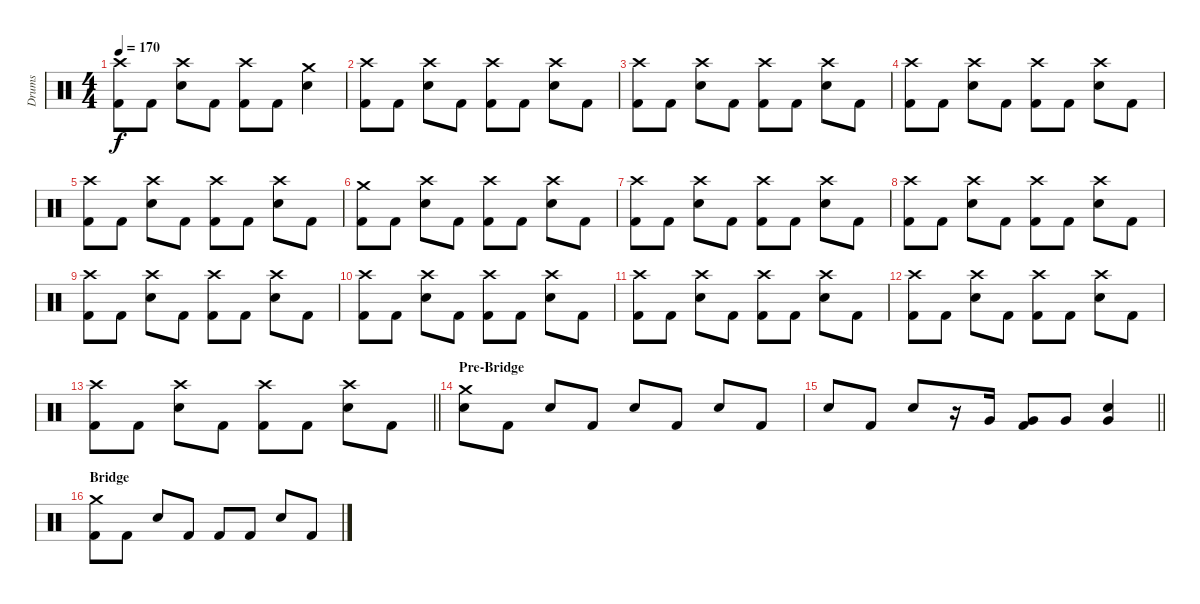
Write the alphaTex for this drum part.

\track ("Drums" "Drums") {instrument percussion}
\staff {score}
\articulation defaults
\ts (4 4)
\tempo 170
\clef neutral
\ks c
("Crash high (hit)" "Kick (hit) 2").8{dy f} "Kick (hit) 2".8 ("Crash high (hit)" "Snare (hit) 2").8 "Kick (hit) 2".8 ("Crash high (hit)" "Kick (hit) 2").8 "Kick (hit) 2".8 ("Crash medium (hit)" "Snare (hit) 2").4 |
("Crash high (hit)" "Kick (hit) 2").8 "Kick (hit) 2".8 ("Crash high (hit)" "Snare (hit) 2").8 "Kick (hit) 2".8 ("Crash high (hit)" "Kick (hit) 2").8 "Kick (hit) 2".8 ("Crash high (hit)" "Snare (hit) 2").8 "Kick (hit) 2".8 |
("Crash high (hit)" "Kick (hit) 2").8 "Kick (hit) 2".8 ("Crash high (hit)" "Snare (hit) 2").8 "Kick (hit) 2".8 ("Crash high (hit)" "Kick (hit) 2").8 "Kick (hit) 2".8 ("Crash high (hit)" "Snare (hit) 2").8 "Kick (hit) 2".8 |
("Crash high (hit)" "Kick (hit) 2").8 "Kick (hit) 2".8 ("Crash high (hit)" "Snare (hit) 2").8 "Kick (hit) 2".8 ("Crash high (hit)" "Kick (hit) 2").8 "Kick (hit) 2".8 ("Crash high (hit)" "Snare (hit) 2").8 "Kick (hit) 2".8 |
("Crash high (hit)" "Kick (hit) 2").8 "Kick (hit) 2".8 ("Crash high (hit)" "Snare (hit) 2").8 "Kick (hit) 2".8 ("Crash high (hit)" "Kick (hit) 2").8 "Kick (hit) 2".8 ("Crash high (hit)" "Snare (hit) 2").8 "Kick (hit) 2".8 |
("Crash medium (hit)" "Kick (hit) 2").8 "Kick (hit) 2".8 ("Crash high (hit)" "Snare (hit) 2").8 "Kick (hit) 2".8 ("Crash high (hit)" "Kick (hit) 2").8 "Kick (hit) 2".8 ("Crash high (hit)" "Snare (hit) 2").8 "Kick (hit) 2".8 |
("Crash high (hit)" "Kick (hit) 2").8 "Kick (hit) 2".8 ("Crash high (hit)" "Snare (hit) 2").8 "Kick (hit) 2".8 ("Crash high (hit)" "Kick (hit) 2").8 "Kick (hit) 2".8 ("Crash high (hit)" "Snare (hit) 2").8 "Kick (hit) 2".8 |
("Crash high (hit)" "Kick (hit) 2").8 "Kick (hit) 2".8 ("Crash high (hit)" "Snare (hit) 2").8 "Kick (hit) 2".8 ("Crash high (hit)" "Kick (hit) 2").8 "Kick (hit) 2".8 ("Crash high (hit)" "Snare (hit) 2").8 "Kick (hit) 2".8 |
("Crash high (hit)" "Kick (hit) 2").8 "Kick (hit) 2".8 ("Crash high (hit)" "Snare (hit) 2").8 "Kick (hit) 2".8 ("Crash high (hit)" "Kick (hit) 2").8 "Kick (hit) 2".8 ("Crash high (hit)" "Snare (hit) 2").8 "Kick (hit) 2".8 |
("Crash high (hit)" "Kick (hit) 2").8 "Kick (hit) 2".8 ("Crash high (hit)" "Snare (hit) 2").8 "Kick (hit) 2".8 ("Crash high (hit)" "Kick (hit) 2").8 "Kick (hit) 2".8 ("Crash high (hit)" "Snare (hit) 2").8 "Kick (hit) 2".8 |
("Crash high (hit)" "Kick (hit) 2").8 "Kick (hit) 2".8 ("Crash high (hit)" "Snare (hit) 2").8 "Kick (hit) 2".8 ("Crash high (hit)" "Kick (hit) 2").8 "Kick (hit) 2".8 ("Crash high (hit)" "Snare (hit) 2").8 "Kick (hit) 2".8 |
("Crash high (hit)" "Kick (hit) 2").8 "Kick (hit) 2".8 ("Crash high (hit)" "Snare (hit) 2").8 "Kick (hit) 2".8 ("Crash high (hit)" "Kick (hit) 2").8 "Kick (hit) 2".8 ("Crash high (hit)" "Snare (hit) 2").8 "Kick (hit) 2".8 |
\barLineRight lightlight
("Crash high (hit)" "Kick (hit) 2").8 "Kick (hit) 2".8 ("Crash high (hit)" "Snare (hit) 2").8 "Kick (hit) 2".8 ("Crash high (hit)" "Kick (hit) 2").8 "Kick (hit) 2".8 ("Crash high (hit)" "Snare (hit) 2").8 "Kick (hit) 2".8 |
\section ("" "Pre-Bridge")
("Crash medium (hit)" "Snare (hit) 2").8 "Kick (hit) 2".8 "Snare (hit) 2".8 "Kick (hit) 2".8 "Snare (hit) 2".8 "Kick (hit) 2".8 "Snare (hit) 2".8 "Kick (hit) 2".8 |
\barLineRight lightlight "Snare (hit) 2".8 "Kick (hit) 2".8 "Snare (hit) 2".8
r.16 "Very Low Tom (hit)".16 ("Very Low Tom (hit)" "Kick (hit) 2").8 "Very Low Tom (hit)".8 ("Very Low Tom (hit)" "Snare (hit) 2").4 |
\section ("" "Bridge")
("Crash medium (hit)" "Kick (hit) 2").8 "Kick (hit) 2".8 "Snare (hit) 2".8 "Kick (hit) 2".8 "Kick (hit) 2".8 "Kick (hit) 2".8 "Snare (hit) 2".8 "Kick (hit) 2".8
